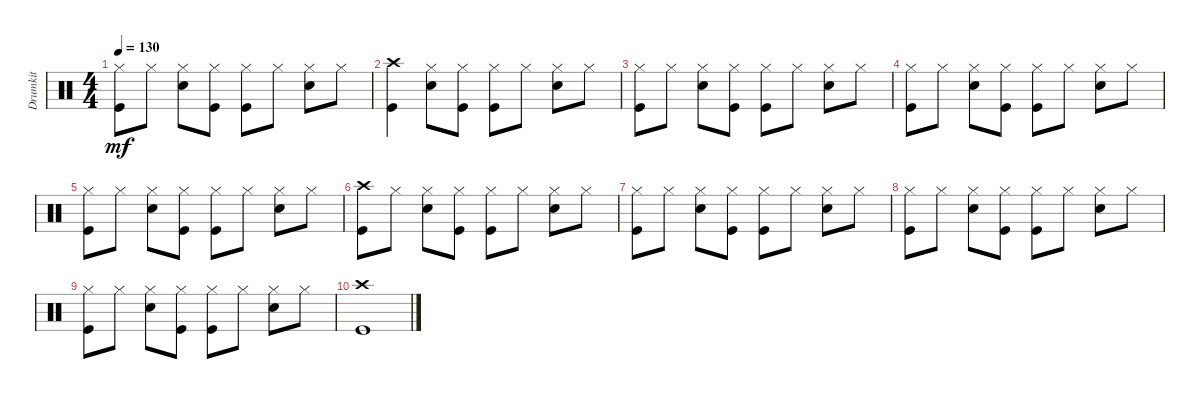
\track ("Drumkit" "Drumkit") {instrument percussion}
\staff {score}
\articulation defaults
\ts (4 4)
\tempo 130
\clef neutral
\ks c
("Kick (hit)" "Hi-Hat (closed)").8{dy mf} "Hi-Hat (closed)".8 ("Snare (hit) 2" "Hi-Hat (closed)").8 ("Kick (hit)" "Hi-Hat (closed)").8 ("Kick (hit)" "Hi-Hat (closed)").8 "Hi-Hat (closed)".8 ("Snare (hit) 2" "Hi-Hat (closed)").8 "Hi-Hat (closed)".8 |
("Crash high (hit)" "Kick (hit)").4 ("Snare (hit) 2" "Hi-Hat (closed)").8 ("Kick (hit)" "Hi-Hat (closed)").8 ("Kick (hit)" "Hi-Hat (closed)").8 "Hi-Hat (closed)".8 ("Snare (hit) 2" "Hi-Hat (closed)").8 "Hi-Hat (closed)".8 |
("Kick (hit)" "Hi-Hat (closed)").8 "Hi-Hat (closed)".8 ("Snare (hit) 2" "Hi-Hat (closed)").8 ("Kick (hit)" "Hi-Hat (closed)").8 ("Kick (hit)" "Hi-Hat (closed)").8 "Hi-Hat (closed)".8 ("Snare (hit) 2" "Hi-Hat (closed)").8 "Hi-Hat (closed)".8 |
("Kick (hit)" "Hi-Hat (closed)").8 "Hi-Hat (closed)".8 ("Snare (hit) 2" "Hi-Hat (closed)").8 ("Kick (hit)" "Hi-Hat (closed)").8 ("Kick (hit)" "Hi-Hat (closed)").8 "Hi-Hat (closed)".8 ("Snare (hit) 2" "Hi-Hat (closed)").8 "Hi-Hat (closed)".8 |
("Kick (hit)" "Hi-Hat (closed)").8 "Hi-Hat (closed)".8 ("Snare (hit) 2" "Hi-Hat (closed)").8 ("Kick (hit)" "Hi-Hat (closed)").8 ("Kick (hit)" "Hi-Hat (closed)").8 "Hi-Hat (closed)".8 ("Snare (hit) 2" "Hi-Hat (closed)").8 "Hi-Hat (closed)".8 |
("Kick (hit)" "Crash high (hit)").8 "Hi-Hat (closed)".8 ("Snare (hit) 2" "Hi-Hat (closed)").8 ("Kick (hit)" "Hi-Hat (closed)").8 ("Kick (hit)" "Hi-Hat (closed)").8 "Hi-Hat (closed)".8 ("Snare (hit) 2" "Hi-Hat (closed)").8 "Hi-Hat (closed)".8 |
("Kick (hit)" "Hi-Hat (closed)").8 "Hi-Hat (closed)".8 ("Snare (hit) 2" "Hi-Hat (closed)").8 ("Kick (hit)" "Hi-Hat (closed)").8 ("Kick (hit)" "Hi-Hat (closed)").8 "Hi-Hat (closed)".8 ("Snare (hit) 2" "Hi-Hat (closed)").8 "Hi-Hat (closed)".8 |
("Kick (hit)" "Hi-Hat (closed)").8 "Hi-Hat (closed)".8 ("Snare (hit) 2" "Hi-Hat (closed)").8 ("Kick (hit)" "Hi-Hat (closed)").8 ("Kick (hit)" "Hi-Hat (closed)").8 "Hi-Hat (closed)".8 ("Snare (hit) 2" "Hi-Hat (closed)").8 "Hi-Hat (closed)".8 |
("Kick (hit)" "Hi-Hat (closed)").8 "Hi-Hat (closed)".8 ("Snare (hit) 2" "Hi-Hat (closed)").8 ("Kick (hit)" "Hi-Hat (closed)").8 ("Kick (hit)" "Hi-Hat (closed)").8 "Hi-Hat (closed)".8 ("Snare (hit) 2" "Hi-Hat (closed)").8 "Hi-Hat (closed)".8 |
("Crash high (hit)" "Kick (hit)").1
